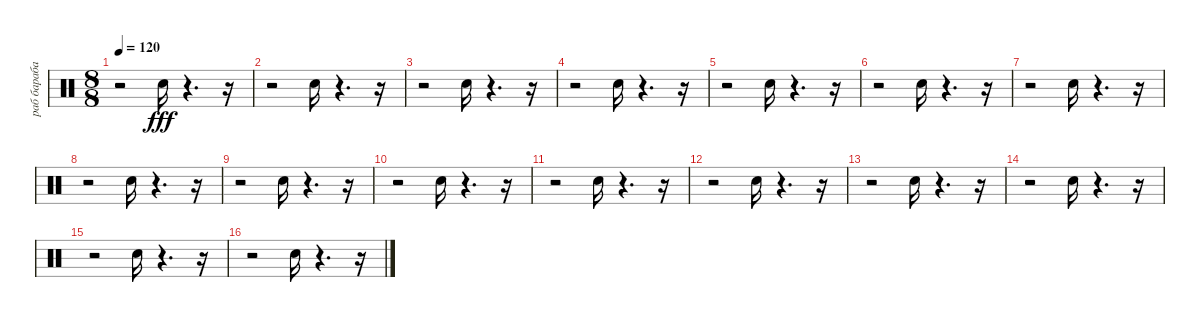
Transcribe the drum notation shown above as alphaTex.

\track ("раб барабан" "раб бараба") {instrument percussion}
\staff {score}
\articulation defaults
\ts (8 8)
\tempo 120
\clef neutral
\ks c
r.2{dy fff} "Snare (hit) 2".16 r.4{d} r.16 |
r.2 "Snare (hit) 2".16 r.4{d} r.16 |
r.2 "Snare (hit) 2".16 r.4{d} r.16 |
r.2 "Snare (hit) 2".16 r.4{d} r.16 |
r.2 "Snare (hit) 2".16 r.4{d} r.16 |
r.2 "Snare (hit) 2".16 r.4{d} r.16 |
r.2 "Snare (hit) 2".16 r.4{d} r.16 |
r.2 "Snare (hit) 2".16 r.4{d} r.16 |
r.2 "Snare (hit) 2".16 r.4{d} r.16 |
r.2 "Snare (hit) 2".16 r.4{d} r.16 |
r.2 "Snare (hit) 2".16 r.4{d} r.16 |
r.2 "Snare (hit) 2".16 r.4{d} r.16 |
r.2 "Snare (hit) 2".16 r.4{d} r.16 |
r.2 "Snare (hit) 2".16 r.4{d} r.16 |
r.2 "Snare (hit) 2".16 r.4{d} r.16 |
r.2 "Snare (hit) 2".16 r.4{d} r.16
